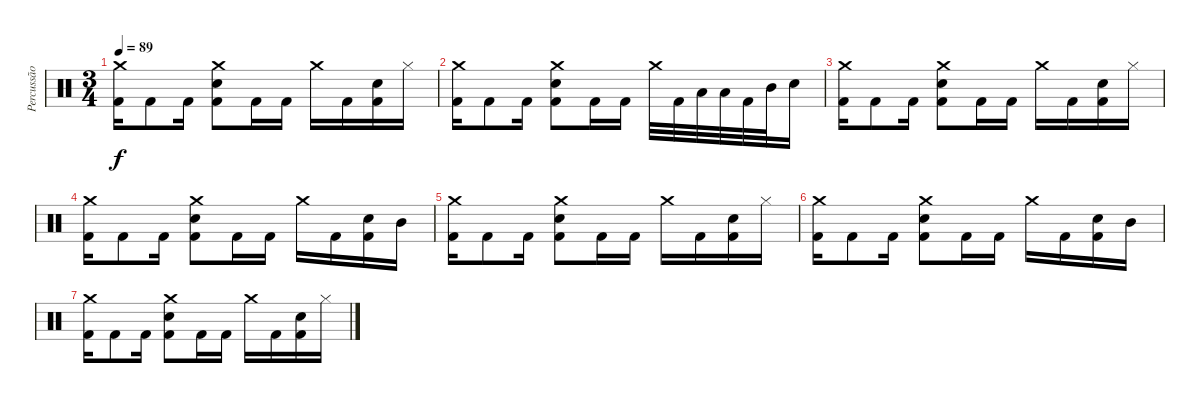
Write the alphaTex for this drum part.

\track ("Percussão" "Percussão") {instrument percussion}
\staff {score}
\articulation defaults
\ts (3 4)
\tempo 89
\clef neutral
\ks c
("Crash medium (hit)" "Kick (hit) 2").16{dy f} "Kick (hit) 2".8 "Kick (hit) 2".16 ("Crash medium (hit)" "Snare (hit) 2" "Kick (hit) 2").8 "Kick (hit) 2".16 "Kick (hit) 2".16 "Crash medium (hit)".16 "Kick (hit) 2".16 ("Snare (hit) 2" "Kick (hit) 2").16 "Hi-Hat (closed)".16 |
("Crash medium (hit)" "Kick (hit) 2").16 "Kick (hit) 2".8 "Kick (hit) 2".16 ("Crash medium (hit)" "Snare (hit) 2" "Kick (hit) 2").8 "Kick (hit) 2".16 "Kick (hit) 2".16 "Crash medium (hit)".32 "Kick (hit) 2".32 "Low Tom (hit)".32 "Low Tom (hit)".32 "Kick (hit) 2".32 "Mid Tom (hit)".32 "Snare (hit) 2".16 |
("Crash medium (hit)" "Kick (hit) 2").16{volume 0} "Kick (hit) 2".8 "Kick (hit) 2".16 ("Crash medium (hit)" "Snare (hit) 2" "Kick (hit) 2").8 "Kick (hit) 2".16 "Kick (hit) 2".16 "Crash medium (hit)".16 "Kick (hit) 2".16 ("Snare (hit) 2" "Kick (hit) 2").16 "Hi-Hat (closed)".16 |
("Crash medium (hit)" "Kick (hit) 2").16 "Kick (hit) 2".8 "Kick (hit) 2".16 ("Crash medium (hit)" "Snare (hit) 2" "Kick (hit) 2").8 "Kick (hit) 2".16 "Kick (hit) 2".16 "Crash medium (hit)".16 "Kick (hit) 2".16 ("Snare (hit) 2" "Kick (hit) 2").16 "Mid Tom (hit)".16 |
("Crash medium (hit)" "Kick (hit) 2").16 "Kick (hit) 2".8 "Kick (hit) 2".16 ("Crash medium (hit)" "Snare (hit) 2" "Kick (hit) 2").8 "Kick (hit) 2".16 "Kick (hit) 2".16 "Crash medium (hit)".16 "Kick (hit) 2".16 ("Snare (hit) 2" "Kick (hit) 2").16 "Hi-Hat (closed)".16 |
("Crash medium (hit)" "Kick (hit) 2").16 "Kick (hit) 2".8 "Kick (hit) 2".16 ("Crash medium (hit)" "Snare (hit) 2" "Kick (hit) 2").8 "Kick (hit) 2".16 "Kick (hit) 2".16 "Crash medium (hit)".16 "Kick (hit) 2".16 ("Snare (hit) 2" "Kick (hit) 2").16 "Mid Tom (hit)".16 |
("Crash medium (hit)" "Kick (hit) 2").16 "Kick (hit) 2".8 "Kick (hit) 2".16 ("Crash medium (hit)" "Snare (hit) 2" "Kick (hit) 2").8 "Kick (hit) 2".16 "Kick (hit) 2".16 "Crash medium (hit)".16 "Kick (hit) 2".16 ("Snare (hit) 2" "Kick (hit) 2").16 "Hi-Hat (closed)".16
